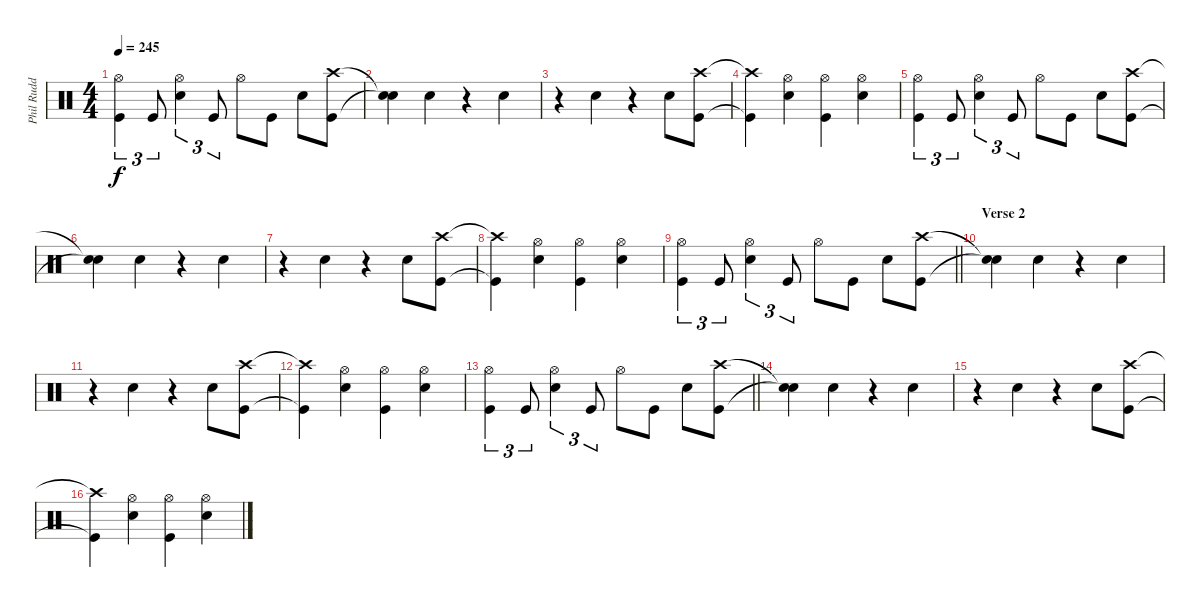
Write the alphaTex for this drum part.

\track ("Phil Rudd" "Phil Rudd") {instrument percussion}
\staff {score}
\articulation defaults
\ts (4 4)
\tempo 245
\clef neutral
\ks c
("Hi-Hat (open)" "Kick (hit)").4{tu (3 2) dy f} "Kick (hit)".8{tu (3 2)} ("Hi-Hat (open)" "Snare (hit) 2").4{tu (3 2)} "Kick (hit)".8{tu (3 2)} "Hi-Hat (open)".8 "Kick (hit)".8 "Snare (hit) 2".8 ("Crash high (hit)" "Kick (hit)").8 |
("Snare (hit)"{t} "Snare (hit)"{t}).4 "Snare (hit) 2".4 r.4 "Snare (hit) 2".4 |
r.4 "Snare (hit) 2".4 r.4 "Snare (hit) 2".8 ("Crash high (hit)" "Kick (hit)").8 |
("Crash high (hit)"{t} "Kick (hit)"{t}).4 ("Hi-Hat (open)" "Snare (hit) 2").4 ("Hi-Hat (open)" "Kick (hit)").4 ("Hi-Hat (open)" "Snare (hit) 2").4 |
("Hi-Hat (open)" "Kick (hit)").4{tu (3 2)} "Kick (hit)".8{tu (3 2)} ("Hi-Hat (open)" "Snare (hit) 2").4{tu (3 2)} "Kick (hit)".8{tu (3 2)} "Hi-Hat (open)".8 "Kick (hit)".8 "Snare (hit) 2".8 ("Crash high (hit)" "Kick (hit)").8 |
("Snare (hit)"{t} "Snare (hit)"{t}).4 "Snare (hit) 2".4 r.4 "Snare (hit) 2".4 |
r.4 "Snare (hit) 2".4 r.4 "Snare (hit) 2".8 ("Crash high (hit)" "Kick (hit)").8 |
("Crash high (hit)"{t} "Kick (hit)"{t}).4 ("Hi-Hat (open)" "Snare (hit) 2").4 ("Hi-Hat (open)" "Kick (hit)").4 ("Hi-Hat (open)" "Snare (hit) 2").4 |
\barLineRight lightlight
("Hi-Hat (open)" "Kick (hit)").4{tu (3 2)} "Kick (hit)".8{tu (3 2)} ("Hi-Hat (open)" "Snare (hit) 2").4{tu (3 2)} "Kick (hit)".8{tu (3 2)} "Hi-Hat (open)".8 "Kick (hit)".8 "Snare (hit) 2".8 ("Crash high (hit)" "Kick (hit)").8 |
\section ("" "Verse 2")
("Snare (hit)"{t} "Snare (hit)"{t}).4 "Snare (hit) 2".4 r.4 "Snare (hit) 2".4 |
r.4 "Snare (hit) 2".4 r.4 "Snare (hit) 2".8 ("Crash high (hit)" "Kick (hit)").8 |
("Crash high (hit)"{t} "Kick (hit)"{t}).4 ("Hi-Hat (open)" "Snare (hit) 2").4 ("Hi-Hat (open)" "Kick (hit)").4 ("Hi-Hat (open)" "Snare (hit) 2").4 |
\barLineRight lightlight
("Hi-Hat (open)" "Kick (hit)").4{tu (3 2)} "Kick (hit)".8{tu (3 2)} ("Hi-Hat (open)" "Snare (hit) 2").4{tu (3 2)} "Kick (hit)".8{tu (3 2)} "Hi-Hat (open)".8 "Kick (hit)".8 "Snare (hit) 2".8 ("Crash high (hit)" "Kick (hit)").8 |
("Snare (hit)"{t} "Snare (hit)"{t}).4 "Snare (hit) 2".4 r.4 "Snare (hit) 2".4 |
r.4 "Snare (hit) 2".4 r.4 "Snare (hit) 2".8 ("Crash high (hit)" "Kick (hit)").8 |
("Crash high (hit)"{t} "Kick (hit)"{t}).4 ("Hi-Hat (open)" "Snare (hit) 2").4 ("Hi-Hat (open)" "Kick (hit)").4 ("Hi-Hat (open)" "Snare (hit) 2").4
